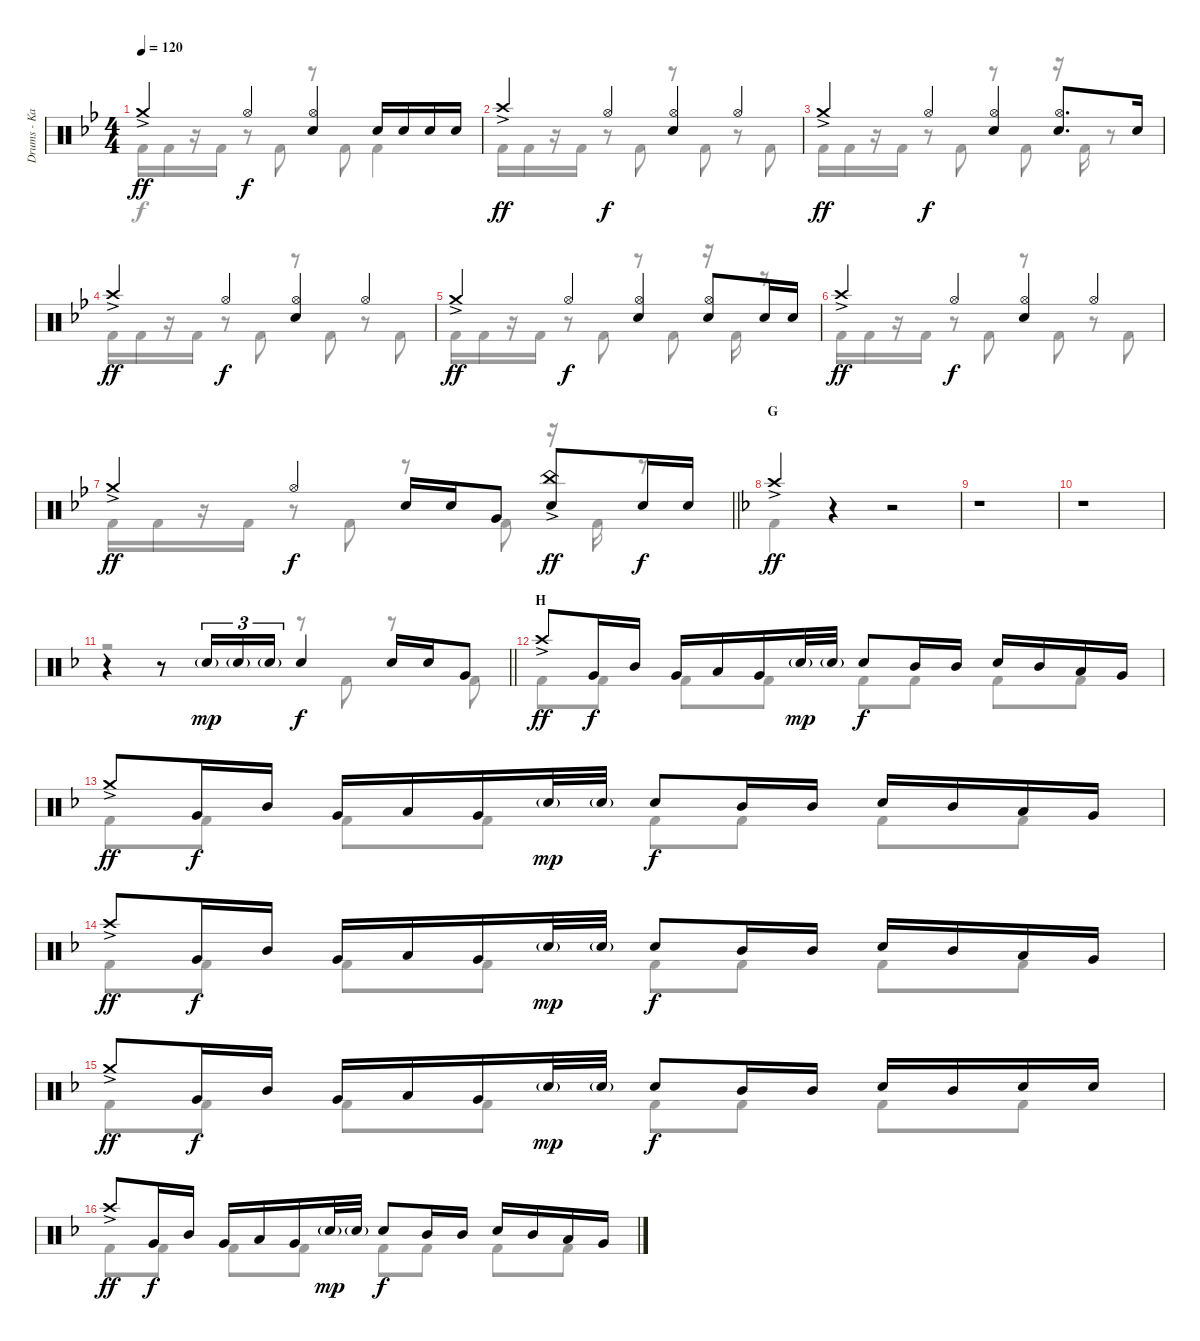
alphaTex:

\track ("Drums - Kai" "Drums - Ka") {instrument percussion}
\staff {score}
\articulation defaults
\voice
\ts (4 4)
\tempo 120
\clef neutral
\ks bb "Crash medium (hit)"{ac}.4{dy ff} "Hi-Hat (open)".4{dy f}
("Hi-Hat (open)" "Snare (hit) 2").4 "Snare (hit) 2".16 "Snare (hit) 2".16 "Snare (hit) 2".16 "Snare (hit) 2".16 |
"Crash high (hit)"{ac}.4{dy ff} "Hi-Hat (open)".4{dy f} ("Hi-Hat (open)" "Snare (hit) 2").4 "Hi-Hat (open)".4 |
"Crash medium (hit)"{ac}.4{dy ff} "Hi-Hat (open)".4{dy f} ("Hi-Hat (open)" "Snare (hit) 2").4 ("Hi-Hat (open)" "Snare (hit) 2").8{d} "Snare (hit) 2".16 |
"Crash high (hit)"{ac}.4{dy ff} "Hi-Hat (open)".4{dy f} ("Hi-Hat (open)" "Snare (hit) 2").4 "Hi-Hat (open)".4 |
"Crash medium (hit)"{ac}.4{dy ff} "Hi-Hat (open)".4{dy f} ("Hi-Hat (open)" "Snare (hit) 2").4 ("Hi-Hat (open)" "Snare (hit) 2").8 "Snare (hit) 2".16 "Snare (hit) 2".16 |
"Crash high (hit)"{ac}.4{dy ff} "Hi-Hat (open)".4{dy f} ("Hi-Hat (open)" "Snare (hit) 2").4 "Hi-Hat (open)".4 |
\barLineRight lightlight "Crash medium (hit)"{ac}.4{dy ff} "Hi-Hat (open)".4{dy f} "Snare (hit) 2".16 "Snare (hit) 2".16 "Very Low Tom (hit)".8
("China (hit)"{ac} "Snare (hit) 2").8{dy ff} "Snare (hit) 2".16{dy f} "Snare (hit) 2".16 |
\section ("" "G")
\ks f "Crash high (hit)"{ac}.4{dy ff}
r.4 r.2 |
r.1 |
r.1 |
\barLineRight lightlight
r.4 r.8 "Snare (hit) 2"{g}.16{tu (3 2) dy mp} "Snare (hit) 2"{g}.16{tu (3 2)} "Snare (hit) 2"{g}.16{tu (3 2)} "Snare (hit) 2".4{dy f} "Snare (hit) 2".16 "Snare (hit) 2".16 "Very Low Tom (hit)".8 |
\section ("" "H")
"Crash high (hit)"{ac}.8{dy ff} "Very Low Tom (hit)".16{dy f} "Mid Tom (hit)".16 "Very Low Tom (hit)".16 "Low Tom (hit)".16 "Very Low Tom (hit)".16 "Snare (hit) 2"{g}.32{dy mp} "Snare (hit) 2"{g}.32 "Snare (hit) 2".8{dy f} "Mid Tom (hit)".16 "Mid Tom (hit)".16 "Snare (hit) 2".16 "Mid Tom (hit)".16 "Low Tom (hit)".16 "Very Low Tom (hit)".16 |
"Crash medium (hit)"{ac}.8{dy ff} "Very Low Tom (hit)".16{dy f} "Mid Tom (hit)".16 "Very Low Tom (hit)".16 "Low Tom (hit)".16 "Very Low Tom (hit)".16 "Snare (hit) 2"{g}.32{dy mp} "Snare (hit) 2"{g}.32 "Snare (hit) 2".8{dy f} "Mid Tom (hit)".16 "Mid Tom (hit)".16 "Snare (hit) 2".16 "Mid Tom (hit)".16 "Low Tom (hit)".16 "Very Low Tom (hit)".16 |
"Crash high (hit)"{ac}.8{dy ff} "Very Low Tom (hit)".16{dy f} "Mid Tom (hit)".16 "Very Low Tom (hit)".16 "Low Tom (hit)".16 "Very Low Tom (hit)".16 "Snare (hit) 2"{g}.32{dy mp} "Snare (hit) 2"{g}.32 "Snare (hit) 2".8{dy f} "Mid Tom (hit)".16 "Mid Tom (hit)".16 "Snare (hit) 2".16 "Mid Tom (hit)".16 "Low Tom (hit)".16 "Very Low Tom (hit)".16 |
"Crash medium (hit)"{ac}.8{dy ff} "Very Low Tom (hit)".16{dy f} "Mid Tom (hit)".16 "Very Low Tom (hit)".16 "Low Tom (hit)".16 "Very Low Tom (hit)".16 "Snare (hit) 2"{g}.32{dy mp} "Snare (hit) 2"{g}.32 "Snare (hit) 2".8{dy f} "Mid Tom (hit)".16 "Mid Tom (hit)".16 "Snare (hit) 2".16 "Mid Tom (hit)".16 "Snare (hit) 2".16 "Snare (hit) 2".16 |
"Crash high (hit)"{ac}.8{dy ff} "Very Low Tom (hit)".16{dy f} "Mid Tom (hit)".16 "Very Low Tom (hit)".16 "Low Tom (hit)".16 "Very Low Tom (hit)".16 "Snare (hit) 2"{g}.32{dy mp} "Snare (hit) 2"{g}.32 "Snare (hit) 2".8{dy f} "Mid Tom (hit)".16 "Mid Tom (hit)".16 "Snare (hit) 2".16 "Mid Tom (hit)".16 "Low Tom (hit)".16 "Very Low Tom (hit)".16
\voice
\clef neutral
\ottava regular
\simile none
\ks bb "Kick (hit) 2".16{dy f} "Kick (hit) 2".16
r.16 "Kick (hit) 2".16 r.8 "Kick (hit) 2".8 r.8 "Kick (hit) 2".8 "Kick (hit) 2".4 |
"Kick (hit) 2".16 "Kick (hit) 2".16 r.16 "Kick (hit) 2".16 r.8 "Kick (hit) 2".8 r.8 "Kick (hit) 2".8 r.8 "Kick (hit) 2".8 |
"Kick (hit) 2".16 "Kick (hit) 2".16 r.16 "Kick (hit) 2".16 r.8 "Kick (hit) 2".8 r.8 "Kick (hit) 2".8 r.16 "Kick (hit) 2".16 r.8 |
"Kick (hit) 2".16 "Kick (hit) 2".16 r.16 "Kick (hit) 2".16 r.8 "Kick (hit) 2".8 r.8 "Kick (hit) 2".8 r.8 "Kick (hit) 2".8 |
"Kick (hit) 2".16 "Kick (hit) 2".16 r.16 "Kick (hit) 2".16 r.8 "Kick (hit) 2".8 r.8 "Kick (hit) 2".8 r.16 "Kick (hit) 2".16 r.8 |
"Kick (hit) 2".16 "Kick (hit) 2".16 r.16 "Kick (hit) 2".16 r.8 "Kick (hit) 2".8 r.8 "Kick (hit) 2".8 r.8 "Kick (hit) 2".8 |
\barLineRight lightlight "Kick (hit) 2".16 "Kick (hit) 2".16
r.16 "Kick (hit) 2".16 r.8 "Kick (hit) 2".8 r.8 "Kick (hit) 2".8 r.16 "Kick (hit) 2".16 r.8 |
\ks f "Kick (hit) 2".4
r.4 r.2 |
|
|
\barLineRight lightlight
r.2 r.8 "Kick (hit) 2".8 r.8 "Kick (hit) 2".8 |
"Kick (hit) 2".8 "Kick (hit) 2".8 "Kick (hit) 2".8 "Kick (hit) 2".8 "Kick (hit) 2".8 "Kick (hit) 2".8 "Kick (hit) 2".8 "Kick (hit) 2".8 |
"Kick (hit) 2".8 "Kick (hit) 2".8 "Kick (hit) 2".8 "Kick (hit) 2".8 "Kick (hit) 2".8 "Kick (hit) 2".8 "Kick (hit) 2".8 "Kick (hit) 2".8 |
"Kick (hit) 2".8 "Kick (hit) 2".8 "Kick (hit) 2".8 "Kick (hit) 2".8 "Kick (hit) 2".8 "Kick (hit) 2".8 "Kick (hit) 2".8 "Kick (hit) 2".8 |
"Kick (hit) 2".8 "Kick (hit) 2".8 "Kick (hit) 2".8 "Kick (hit) 2".8 "Kick (hit) 2".8 "Kick (hit) 2".8 "Kick (hit) 2".8 "Kick (hit) 2".8 |
"Kick (hit) 2".8 "Kick (hit) 2".8 "Kick (hit) 2".8 "Kick (hit) 2".8 "Kick (hit) 2".8 "Kick (hit) 2".8 "Kick (hit) 2".8 "Kick (hit) 2".8
